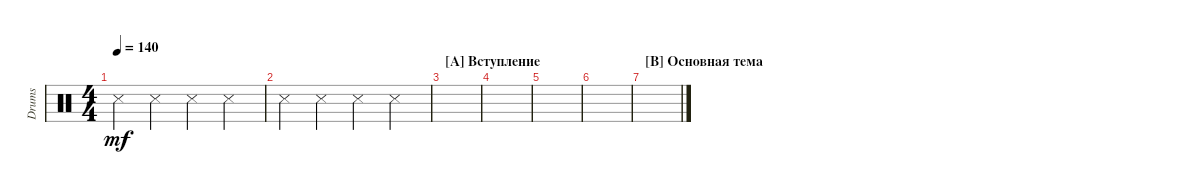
\track ("Drumkit" "Drums") {instrument percussion}
\staff {score}
\articulation defaults
\ts (4 4)
\tempo 140
\clef neutral
\ks c "Snare (side stick) 3".4{dy mf} "Snare (side stick) 3".4 "Snare (side stick) 3".4 "Snare (side stick) 3".4
|
"Snare (side stick) 3".4 "Snare (side stick) 3".4 "Snare (side stick) 3".4 "Snare (side stick) 3".4 |
\section ("A" "Вступление")
|
|
|
|
\section ("B" "Основная тема")
